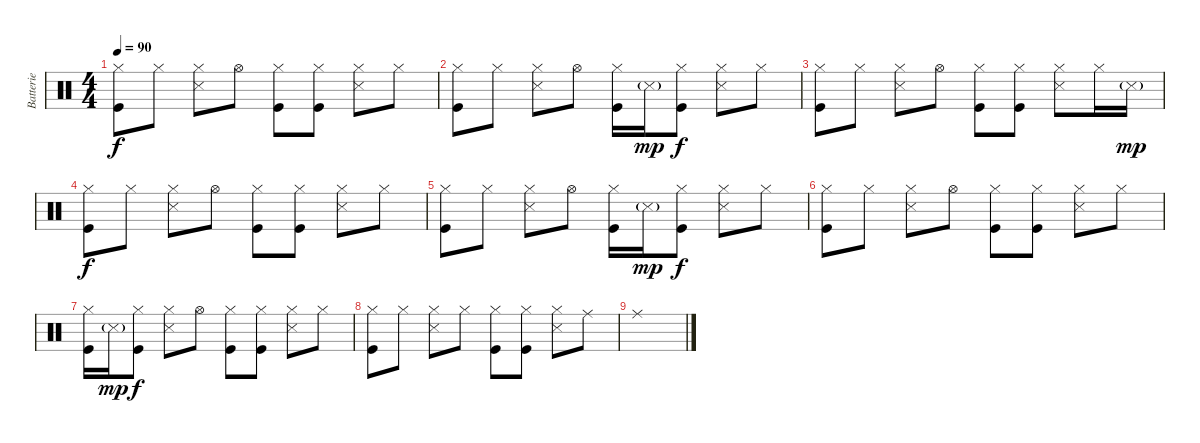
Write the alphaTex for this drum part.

\track ("Batterie" "Batterie") {instrument percussion}
\staff {score}
\articulation defaults
\ts (4 4)
\section ("" "")
\tempo 90
\clef neutral
\ks c
("Hi-Hat (closed)" "Kick (hit)").8{dy f} "Hi-Hat (closed)".8 ("Hi-Hat (closed)" "Snare (side stick) 3").8 "Hi-Hat (open)".8 ("Hi-Hat (closed)" "Kick (hit)").8 ("Hi-Hat (closed)" "Kick (hit)").8 ("Hi-Hat (closed)" "Snare (side stick) 3").8 "Hi-Hat (closed)".8 |
("Hi-Hat (closed)" "Kick (hit)").8 "Hi-Hat (closed)".8 ("Hi-Hat (closed)" "Snare (side stick) 3").8 "Hi-Hat (open)".8 ("Hi-Hat (closed)" "Kick (hit)").16 "Snare (side stick) 3"{g}.16{dy mp} ("Hi-Hat (closed)" "Kick (hit)").8{dy f} ("Hi-Hat (closed)" "Snare (side stick) 3").8 "Hi-Hat (closed)".8 |
("Hi-Hat (closed)" "Kick (hit)").8 "Hi-Hat (closed)".8 ("Hi-Hat (closed)" "Snare (side stick) 3").8 "Hi-Hat (open)".8 ("Hi-Hat (closed)" "Kick (hit)").8 ("Hi-Hat (closed)" "Kick (hit)").8 ("Hi-Hat (closed)" "Snare (side stick) 3").8 "Hi-Hat (closed)".16 "Snare (side stick) 3"{g}.16{dy mp} |
("Hi-Hat (closed)" "Kick (hit)").8{dy f} "Hi-Hat (closed)".8 ("Hi-Hat (closed)" "Snare (side stick) 3").8 "Hi-Hat (open)".8 ("Hi-Hat (closed)" "Kick (hit)").8 ("Hi-Hat (closed)" "Kick (hit)").8 ("Hi-Hat (closed)" "Snare (side stick) 3").8 "Hi-Hat (closed)".8 |
("Hi-Hat (closed)" "Kick (hit)").8 "Hi-Hat (closed)".8 ("Hi-Hat (closed)" "Snare (side stick) 3").8 "Hi-Hat (open)".8 ("Hi-Hat (closed)" "Kick (hit)").16 "Snare (side stick) 3"{g}.16{dy mp} ("Hi-Hat (closed)" "Kick (hit)").8{dy f} ("Hi-Hat (closed)" "Snare (side stick) 3").8 "Hi-Hat (closed)".8 |
("Hi-Hat (closed)" "Kick (hit)").8 "Hi-Hat (closed)".8 ("Hi-Hat (closed)" "Snare (side stick) 3").8 "Hi-Hat (open)".8 ("Hi-Hat (closed)" "Kick (hit)").8 ("Hi-Hat (closed)" "Kick (hit)").8 ("Hi-Hat (closed)" "Snare (side stick) 3").8 "Hi-Hat (closed)".8 |
("Hi-Hat (closed)" "Kick (hit)").16 "Snare (side stick) 3"{g}.16{dy mp} ("Hi-Hat (closed)" "Kick (hit)").8{dy f} ("Hi-Hat (closed)" "Snare (side stick) 3").8 "Hi-Hat (open)".8 ("Hi-Hat (closed)" "Kick (hit)").8 ("Hi-Hat (closed)" "Kick (hit)").8 ("Hi-Hat (closed)" "Snare (side stick) 3").8 "Hi-Hat (closed)".8 |
("Hi-Hat (closed)" "Kick (hit)").8 "Hi-Hat (closed)".8 ("Hi-Hat (closed)" "Snare (side stick) 3").8 "Hi-Hat (closed)".8 ("Hi-Hat (closed)" "Kick (hit)").8 ("Hi-Hat (closed)" "Kick (hit)").8 ("Hi-Hat (closed)" "Snare (side stick) 3").8 "Ride (middle)".8 |
"Ride (middle)".1
